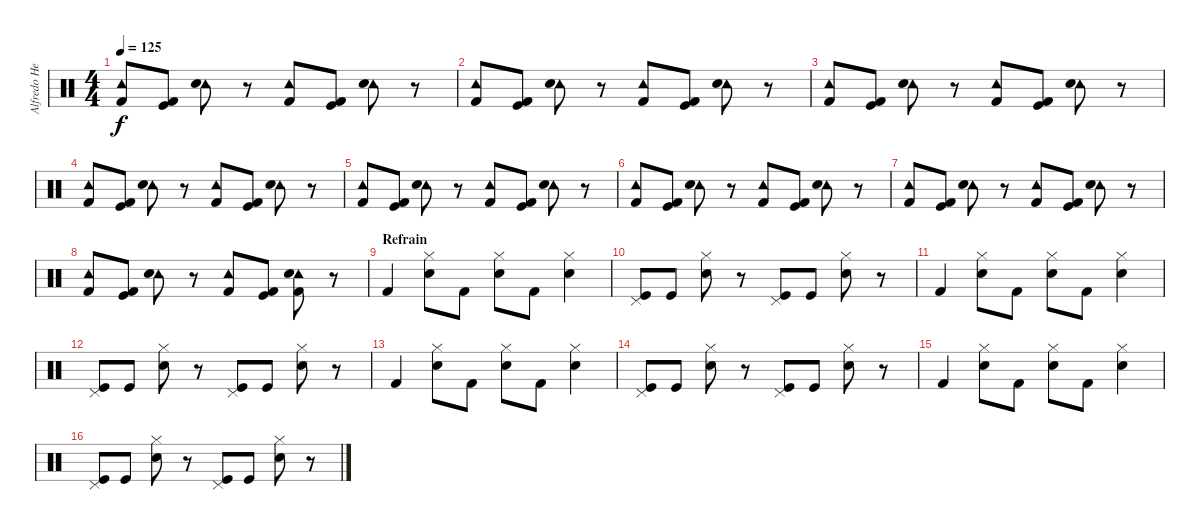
\track ("Alfredo Hernandez (Drums)" "Alfredo He") {instrument percussion}
\staff {score}
\articulation defaults
\ts (4 4)
\tempo 125
\clef neutral
\ks c
("Tambourine (hit)" "Kick (hit) 2").8{dy f} ("Kick (hit)" "Kick (hit) 2").8 ("Tambourine (hit)" "Electric Snare (hit)").8 r.8 ("Tambourine (hit)" "Kick (hit) 2").8 ("Kick (hit)" "Kick (hit) 2").8 ("Tambourine (hit)" "Electric Snare (hit)").8 r.8 |
("Tambourine (hit)" "Kick (hit) 2").8 ("Kick (hit)" "Kick (hit) 2").8 ("Tambourine (hit)" "Electric Snare (hit)").8 r.8 ("Tambourine (hit)" "Kick (hit) 2").8 ("Kick (hit)" "Kick (hit) 2").8 ("Tambourine (hit)" "Electric Snare (hit)").8 r.8 |
("Tambourine (hit)" "Kick (hit) 2").8 ("Kick (hit)" "Kick (hit) 2").8 ("Tambourine (hit)" "Electric Snare (hit)").8 r.8 ("Tambourine (hit)" "Kick (hit) 2").8 ("Kick (hit)" "Kick (hit) 2").8 ("Tambourine (hit)" "Electric Snare (hit)").8 r.8 |
("Tambourine (hit)" "Kick (hit) 2").8 ("Kick (hit)" "Kick (hit) 2").8 ("Tambourine (hit)" "Electric Snare (hit)").8 r.8 ("Tambourine (hit)" "Kick (hit) 2").8 ("Kick (hit)" "Kick (hit) 2").8 ("Tambourine (hit)" "Electric Snare (hit)").8 r.8 |
("Tambourine (hit)" "Kick (hit) 2").8 ("Kick (hit)" "Kick (hit) 2").8 ("Tambourine (hit)" "Electric Snare (hit)").8 r.8 ("Tambourine (hit)" "Kick (hit) 2").8 ("Kick (hit)" "Kick (hit) 2").8 ("Tambourine (hit)" "Electric Snare (hit)").8 r.8 |
("Tambourine (hit)" "Kick (hit) 2").8 ("Kick (hit)" "Kick (hit) 2").8 ("Tambourine (hit)" "Electric Snare (hit)").8 r.8 ("Tambourine (hit)" "Kick (hit) 2").8 ("Kick (hit)" "Kick (hit) 2").8 ("Tambourine (hit)" "Electric Snare (hit)").8 r.8 |
("Tambourine (hit)" "Kick (hit) 2").8 ("Kick (hit)" "Kick (hit) 2").8 ("Tambourine (hit)" "Electric Snare (hit)").8 r.8 ("Tambourine (hit)" "Kick (hit) 2").8 ("Kick (hit)" "Kick (hit) 2").8 ("Tambourine (hit)" "Electric Snare (hit)").8 r.8 |
("Tambourine (hit)" "Kick (hit) 2").8 ("Kick (hit)" "Kick (hit) 2").8 ("Tambourine (hit)" "Electric Snare (hit)").8 r.8 ("Tambourine (hit)" "Kick (hit) 2").8{volume 16} ("Kick (hit)" "Kick (hit) 2").8 ("Tambourine (hit)" "Kick (hit) 2" "Electric Snare (hit)").8 r.8 |
\section ("" "Refrain")
"Kick (hit) 2".4 ("Hi-Hat (closed)" "Electric Snare (hit)").8 "Kick (hit) 2".8 ("Hi-Hat (closed)" "Electric Snare (hit)").8 "Kick (hit) 2".8 ("Hi-Hat (closed)" "Electric Snare (hit)").4 |
("Kick (hit)" "Pedal Hi-Hat (hit)").8 "Kick (hit)".8 ("Hi-Hat (closed)" "Electric Snare (hit)").8 r.8 ("Kick (hit)" "Pedal Hi-Hat (hit)").8 "Kick (hit)".8 ("Hi-Hat (closed)" "Electric Snare (hit)").8 r.8 |
"Kick (hit) 2".4 ("Hi-Hat (closed)" "Electric Snare (hit)").8 "Kick (hit) 2".8 ("Hi-Hat (closed)" "Electric Snare (hit)").8 "Kick (hit) 2".8 ("Hi-Hat (closed)" "Electric Snare (hit)").4 |
("Kick (hit)" "Pedal Hi-Hat (hit)").8 "Kick (hit)".8 ("Hi-Hat (closed)" "Electric Snare (hit)").8 r.8 ("Kick (hit)" "Pedal Hi-Hat (hit)").8 "Kick (hit)".8 ("Hi-Hat (closed)" "Electric Snare (hit)").8 r.8 |
"Kick (hit) 2".4 ("Hi-Hat (closed)" "Electric Snare (hit)").8 "Kick (hit) 2".8 ("Hi-Hat (closed)" "Electric Snare (hit)").8 "Kick (hit) 2".8 ("Hi-Hat (closed)" "Electric Snare (hit)").4 |
("Kick (hit)" "Pedal Hi-Hat (hit)").8 "Kick (hit)".8 ("Hi-Hat (closed)" "Electric Snare (hit)").8 r.8 ("Kick (hit)" "Pedal Hi-Hat (hit)").8 "Kick (hit)".8 ("Hi-Hat (closed)" "Electric Snare (hit)").8 r.8 |
"Kick (hit) 2".4 ("Hi-Hat (closed)" "Electric Snare (hit)").8 "Kick (hit) 2".8 ("Hi-Hat (closed)" "Electric Snare (hit)").8 "Kick (hit) 2".8 ("Hi-Hat (closed)" "Electric Snare (hit)").4 |
("Kick (hit)" "Pedal Hi-Hat (hit)").8 "Kick (hit)".8 ("Hi-Hat (closed)" "Electric Snare (hit)").8 r.8 ("Kick (hit)" "Pedal Hi-Hat (hit)").8 "Kick (hit)".8 ("Hi-Hat (closed)" "Electric Snare (hit)").8 r.8
